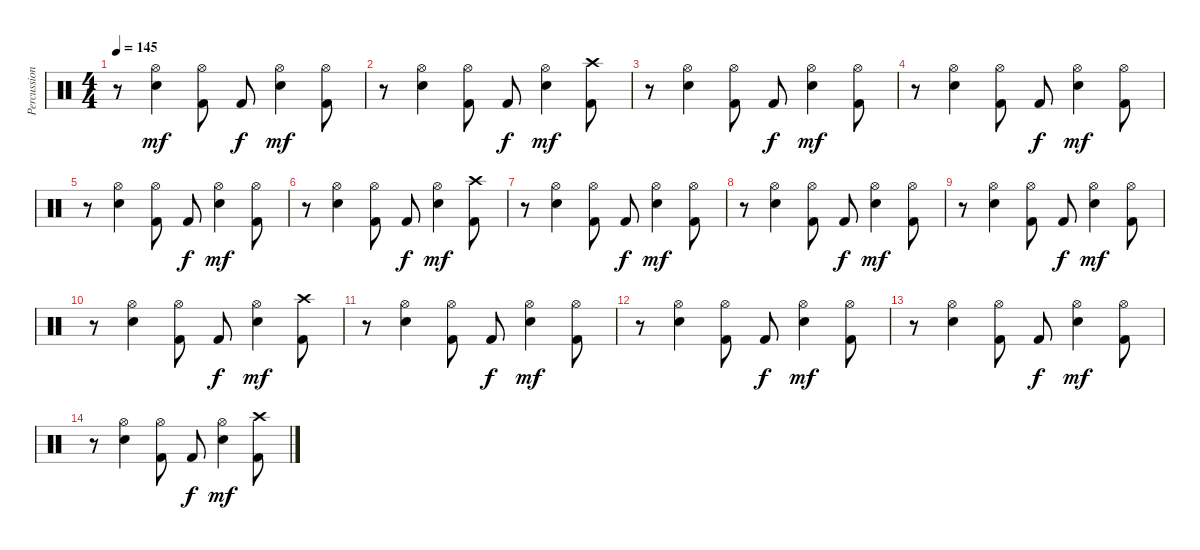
\track ("Percussioni" "Percussion") {instrument percussion}
\staff {score}
\articulation defaults
\ts (4 4)
\tempo 145
\clef neutral
\ks c
r.8{dy mf} ("Snare (hit) 2" "Hi-Hat (open)").4 ("Kick (hit) 2" "Hi-Hat (open)").8 "Kick (hit) 2".8{dy f} ("Snare (hit) 2" "Hi-Hat (open)").4{dy mf} ("Kick (hit) 2" "Hi-Hat (open)").8 |
r.8 ("Snare (hit) 2" "Hi-Hat (open)").4 ("Kick (hit) 2" "Hi-Hat (open)").8 "Kick (hit) 2".8{dy f} ("Snare (hit) 2" "Hi-Hat (open)").4{dy mf} ("Kick (hit) 2" "Crash high (hit)").8{volume 9} |
r.8 ("Snare (hit) 2" "Hi-Hat (open)").4 ("Kick (hit) 2" "Hi-Hat (open)").8 "Kick (hit) 2".8{dy f} ("Snare (hit) 2" "Hi-Hat (open)").4{dy mf} ("Kick (hit) 2" "Hi-Hat (open)").8 |
r.8 ("Snare (hit) 2" "Hi-Hat (open)").4 ("Kick (hit) 2" "Hi-Hat (open)").8 "Kick (hit) 2".8{dy f} ("Snare (hit) 2" "Hi-Hat (open)").4{dy mf} ("Kick (hit) 2" "Hi-Hat (open)").8 |
r.8 ("Snare (hit) 2" "Hi-Hat (open)").4 ("Kick (hit) 2" "Hi-Hat (open)").8 "Kick (hit) 2".8{dy f} ("Snare (hit) 2" "Hi-Hat (open)").4{dy mf} ("Kick (hit) 2" "Hi-Hat (open)").8 |
r.8 ("Snare (hit) 2" "Hi-Hat (open)").4 ("Kick (hit) 2" "Hi-Hat (open)").8 "Kick (hit) 2".8{dy f} ("Snare (hit) 2" "Hi-Hat (open)").4{dy mf} ("Kick (hit) 2" "Crash high (hit)").8{volume 6} |
r.8 ("Snare (hit) 2" "Hi-Hat (open)").4 ("Kick (hit) 2" "Hi-Hat (open)").8 "Kick (hit) 2".8{dy f} ("Snare (hit) 2" "Hi-Hat (open)").4{dy mf} ("Kick (hit) 2" "Hi-Hat (open)").8 |
r.8 ("Snare (hit) 2" "Hi-Hat (open)").4 ("Kick (hit) 2" "Hi-Hat (open)").8 "Kick (hit) 2".8{dy f} ("Snare (hit) 2" "Hi-Hat (open)").4{dy mf} ("Kick (hit) 2" "Hi-Hat (open)").8 |
r.8 ("Snare (hit) 2" "Hi-Hat (open)").4 ("Kick (hit) 2" "Hi-Hat (open)").8 "Kick (hit) 2".8{dy f} ("Snare (hit) 2" "Hi-Hat (open)").4{dy mf} ("Kick (hit) 2" "Hi-Hat (open)").8 |
r.8 ("Snare (hit) 2" "Hi-Hat (open)").4 ("Kick (hit) 2" "Hi-Hat (open)").8 "Kick (hit) 2".8{dy f} ("Snare (hit) 2" "Hi-Hat (open)").4{dy mf} ("Kick (hit) 2" "Crash high (hit)").8{volume 2} |
r.8 ("Snare (hit) 2" "Hi-Hat (open)").4 ("Kick (hit) 2" "Hi-Hat (open)").8 "Kick (hit) 2".8{dy f} ("Snare (hit) 2" "Hi-Hat (open)").4{dy mf} ("Kick (hit) 2" "Hi-Hat (open)").8 |
r.8 ("Snare (hit) 2" "Hi-Hat (open)").4 ("Kick (hit) 2" "Hi-Hat (open)").8 "Kick (hit) 2".8{dy f} ("Snare (hit) 2" "Hi-Hat (open)").4{dy mf} ("Kick (hit) 2" "Hi-Hat (open)").8 |
r.8 ("Snare (hit) 2" "Hi-Hat (open)").4 ("Kick (hit) 2" "Hi-Hat (open)").8 "Kick (hit) 2".8{dy f} ("Snare (hit) 2" "Hi-Hat (open)").4{dy mf} ("Kick (hit) 2" "Hi-Hat (open)").8 |
r.8 ("Snare (hit) 2" "Hi-Hat (open)").4 ("Kick (hit) 2" "Hi-Hat (open)").8 "Kick (hit) 2".8{dy f} ("Snare (hit) 2" "Hi-Hat (open)").4{dy mf} ("Kick (hit) 2" "Crash high (hit)").8
